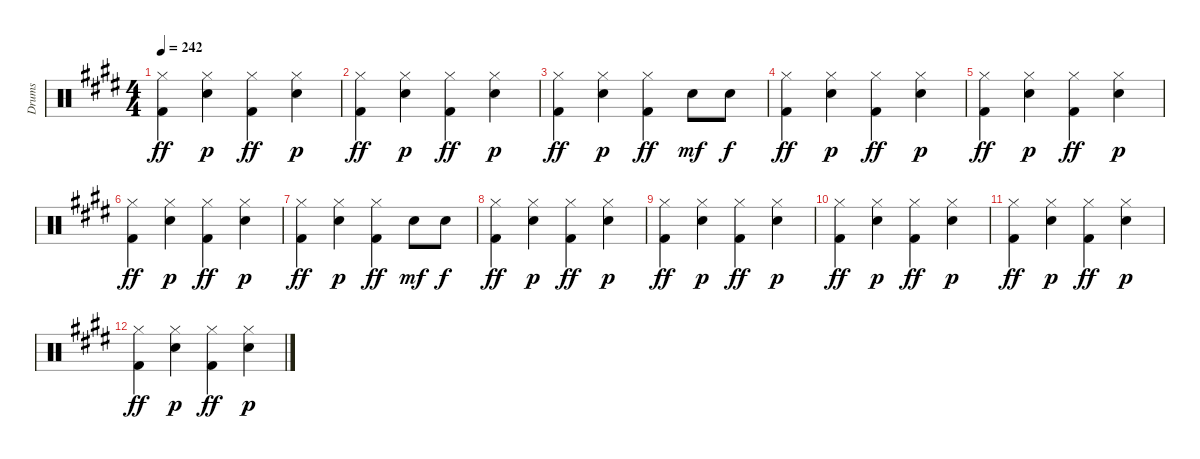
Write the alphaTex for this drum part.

\track ("Drums" "Drums") {instrument percussion}
\staff {score}
\articulation defaults
\ts (4 4)
\tempo 242
\clef neutral
\ks e
("Hi-Hat (closed)" "Kick (hit) 2").4{dy ff} ("Hi-Hat (closed)" "Electric Snare (hit)").4{dy p} ("Hi-Hat (closed)" "Kick (hit) 2").4{dy ff} ("Hi-Hat (closed)" "Electric Snare (hit)").4{dy p} |
("Hi-Hat (closed)" "Kick (hit) 2").4{dy ff} ("Hi-Hat (closed)" "Electric Snare (hit)").4{dy p} ("Hi-Hat (closed)" "Kick (hit) 2").4{dy ff} ("Hi-Hat (closed)" "Electric Snare (hit)").4{dy p} |
("Hi-Hat (closed)" "Kick (hit) 2").4{dy ff} ("Hi-Hat (closed)" "Electric Snare (hit)").4{dy p} ("Hi-Hat (closed)" "Kick (hit) 2").4{dy ff} "Electric Snare (hit)".8{dy mf} "Electric Snare (hit)".8{dy f} |
("Hi-Hat (closed)" "Kick (hit) 2").4{dy ff} ("Hi-Hat (closed)" "Electric Snare (hit)").4{dy p} ("Hi-Hat (closed)" "Kick (hit) 2").4{dy ff} ("Hi-Hat (closed)" "Electric Snare (hit)").4{dy p} |
("Hi-Hat (closed)" "Kick (hit) 2").4{dy ff} ("Hi-Hat (closed)" "Electric Snare (hit)").4{dy p} ("Hi-Hat (closed)" "Kick (hit) 2").4{dy ff} ("Hi-Hat (closed)" "Electric Snare (hit)").4{dy p} |
("Hi-Hat (closed)" "Kick (hit) 2").4{dy ff} ("Hi-Hat (closed)" "Electric Snare (hit)").4{dy p} ("Hi-Hat (closed)" "Kick (hit) 2").4{dy ff} ("Hi-Hat (closed)" "Electric Snare (hit)").4{dy p} |
("Hi-Hat (closed)" "Kick (hit) 2").4{dy ff} ("Hi-Hat (closed)" "Electric Snare (hit)").4{dy p} ("Hi-Hat (closed)" "Kick (hit) 2").4{dy ff} "Electric Snare (hit)".8{dy mf} "Electric Snare (hit)".8{dy f} |
("Hi-Hat (closed)" "Kick (hit) 2").4{dy ff} ("Hi-Hat (closed)" "Electric Snare (hit)").4{dy p} ("Hi-Hat (closed)" "Kick (hit) 2").4{dy ff} ("Hi-Hat (closed)" "Electric Snare (hit)").4{dy p} |
("Hi-Hat (closed)" "Kick (hit) 2").4{dy ff} ("Hi-Hat (closed)" "Electric Snare (hit)").4{dy p} ("Hi-Hat (closed)" "Kick (hit) 2").4{dy ff} ("Hi-Hat (closed)" "Electric Snare (hit)").4{dy p} |
("Hi-Hat (closed)" "Kick (hit) 2").4{dy ff} ("Hi-Hat (closed)" "Electric Snare (hit)").4{dy p} ("Hi-Hat (closed)" "Kick (hit) 2").4{dy ff} ("Hi-Hat (closed)" "Electric Snare (hit)").4{dy p} |
("Hi-Hat (closed)" "Kick (hit) 2").4{dy ff} ("Hi-Hat (closed)" "Electric Snare (hit)").4{dy p} ("Hi-Hat (closed)" "Kick (hit) 2").4{dy ff} ("Hi-Hat (closed)" "Electric Snare (hit)").4{dy p} |
("Hi-Hat (closed)" "Kick (hit) 2").4{dy ff} ("Hi-Hat (closed)" "Electric Snare (hit)").4{dy p} ("Hi-Hat (closed)" "Kick (hit) 2").4{dy ff} ("Hi-Hat (closed)" "Electric Snare (hit)").4{dy p}
